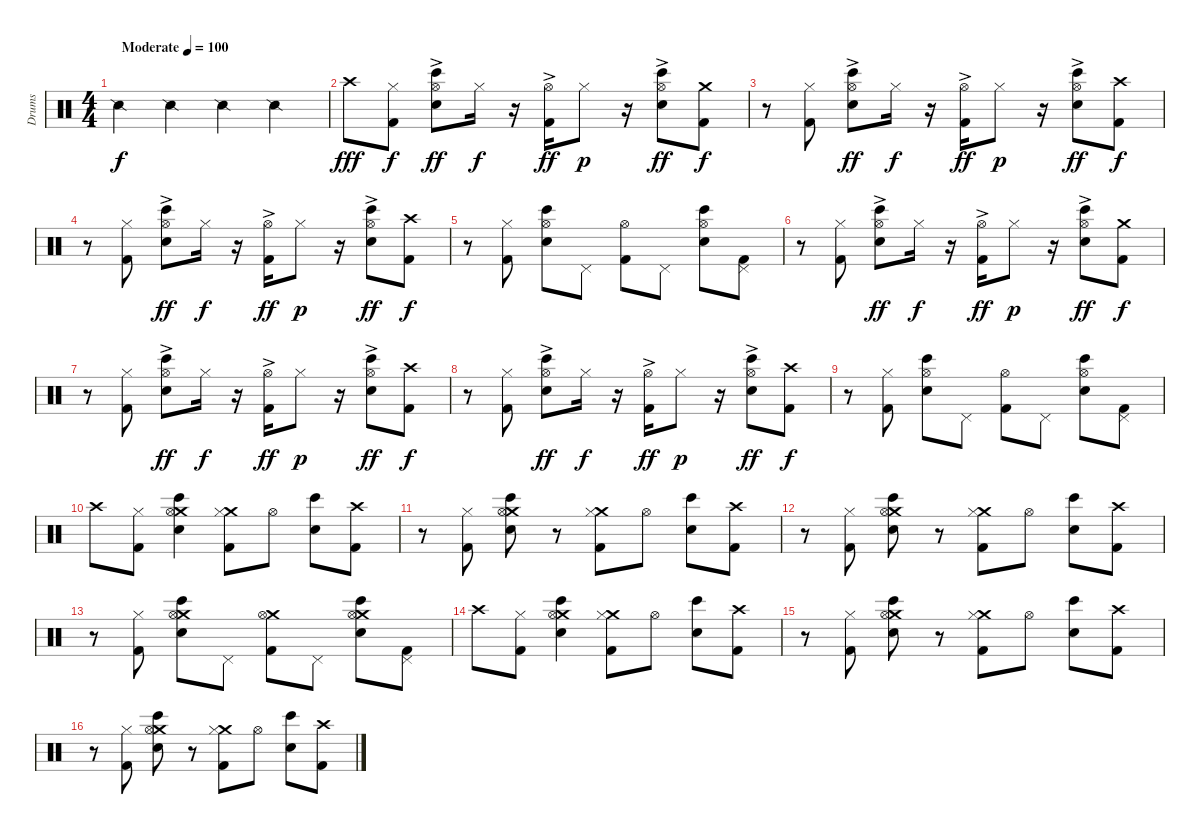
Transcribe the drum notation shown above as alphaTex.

\track ("Drums" "Drums") {instrument percussion}
\staff {score}
\articulation defaults
\ts (4 4)
\tempo (100 "Moderate")
\clef neutral
\ks c "Snare (side stick) 2".4{dy f} "Snare (side stick) 2".4 "Snare (side stick) 2".4 "Snare (side stick) 2".4
|
"Crash high (hit)".8{dy fff} ("Hi-Hat (closed)" "Kick (hit) 2").8{dy f} ("Hi-Hat (open)"{ac} "Bongo High (hit)" "Electric Snare (hit)").8{dy ff} "Hi-Hat (closed)".16{dy f} r.16 ("Hi-Hat (open)"{ac} "Kick (hit) 2").16{dy ff} "Hi-Hat (closed)".8{dy p} r.16 ("Hi-Hat (open)"{ac} "Bongo High (hit)" "Electric Snare (hit)").8{dy ff} ("Crash medium (hit)" "Kick (hit) 2").8{dy f} |
r.8 ("Hi-Hat (closed)" "Kick (hit) 2").8 ("Hi-Hat (open)"{ac} "Bongo High (hit)" "Electric Snare (hit)").8{dy ff} "Hi-Hat (closed)".16{dy f} r.16 ("Hi-Hat (open)"{ac} "Kick (hit) 2").16{dy ff} "Hi-Hat (closed)".8{dy p} r.16 ("Hi-Hat (open)"{ac} "Bongo High (hit)" "Electric Snare (hit)").8{dy ff} ("Crash high (hit)" "Kick (hit) 2").8{dy f} |
r.8 ("Hi-Hat (closed)" "Kick (hit) 2").8 ("Hi-Hat (open)"{ac} "Bongo High (hit)" "Electric Snare (hit)").8{dy ff} "Hi-Hat (closed)".16{dy f} r.16 ("Hi-Hat (open)"{ac} "Kick (hit) 2").16{dy ff} "Hi-Hat (closed)".8{dy p} r.16 ("Hi-Hat (open)"{ac} "Bongo High (hit)" "Electric Snare (hit)").8{dy ff} ("Crash high (hit)" "Kick (hit) 2").8{dy f} |
r.8 ("Hi-Hat (closed)" "Kick (hit) 2").8 ("Hi-Hat (open)" "Bongo High (hit)" "Electric Snare (hit)").8 "Pedal Hi-Hat (hit)".8 ("Hi-Hat (open)" "Kick (hit) 2").8 "Pedal Hi-Hat (hit)".8 ("Hi-Hat (open)" "Bongo High (hit)" "Electric Snare (hit)").8 ("Pedal Hi-Hat (hit)" "Kick (hit) 2").8 |
r.8 ("Hi-Hat (closed)" "Kick (hit) 2").8 ("Hi-Hat (open)"{ac} "Bongo High (hit)" "Electric Snare (hit)").8{dy ff} "Hi-Hat (closed)".16{dy f} r.16 ("Hi-Hat (open)"{ac} "Kick (hit) 2").16{dy ff} "Hi-Hat (closed)".8{dy p} r.16 ("Hi-Hat (open)"{ac} "Bongo High (hit)" "Electric Snare (hit)").8{dy ff} ("Crash medium (hit)" "Kick (hit) 2").8{dy f} |
r.8 ("Hi-Hat (closed)" "Kick (hit) 2").8 ("Hi-Hat (open)"{ac} "Bongo High (hit)" "Electric Snare (hit)").8{dy ff} "Hi-Hat (closed)".16{dy f} r.16 ("Hi-Hat (open)"{ac} "Kick (hit) 2").16{dy ff} "Hi-Hat (closed)".8{dy p} r.16 ("Hi-Hat (open)"{ac} "Bongo High (hit)" "Electric Snare (hit)").8{dy ff} ("Crash high (hit)" "Kick (hit) 2").8{dy f} |
r.8 ("Hi-Hat (closed)" "Kick (hit) 2").8 ("Hi-Hat (open)"{ac} "Bongo High (hit)" "Electric Snare (hit)").8{dy ff} "Hi-Hat (closed)".16{dy f} r.16 ("Hi-Hat (open)"{ac} "Kick (hit) 2").16{dy ff} "Hi-Hat (closed)".8{dy p} r.16 ("Hi-Hat (open)"{ac} "Bongo High (hit)" "Electric Snare (hit)").8{dy ff} ("Crash high (hit)" "Kick (hit) 2").8{dy f} |
r.8 ("Hi-Hat (closed)" "Kick (hit) 2").8 ("Hi-Hat (open)" "Bongo High (hit)" "Electric Snare (hit)").8 "Pedal Hi-Hat (hit)".8 ("Hi-Hat (open)" "Kick (hit) 2").8 "Pedal Hi-Hat (hit)".8 ("Hi-Hat (open)" "Bongo High (hit)" "Electric Snare (hit)").8 ("Pedal Hi-Hat (hit)" "Kick (hit) 2").8 |
"Crash high (hit)".8 ("Hi-Hat (closed)" "Kick (hit) 2").8 ("Crash medium (hit)" "Hi-Hat (open)" "Bongo High (hit)" "Electric Snare (hit)").4 ("Crash medium (hit)" "Hi-Hat (closed)" "Kick (hit) 2").8 "Hi-Hat (open)".8 ("Bongo High (hit)" "Electric Snare (hit)").8 ("Crash high (hit)" "Kick (hit) 2").8 |
r.8 ("Hi-Hat (closed)" "Kick (hit) 2").8 ("Crash medium (hit)" "Hi-Hat (open)" "Bongo High (hit)" "Electric Snare (hit)").8 r.8 ("Crash medium (hit)" "Hi-Hat (closed)" "Kick (hit) 2").8 "Hi-Hat (open)".8 ("Bongo High (hit)" "Electric Snare (hit)").8 ("Crash high (hit)" "Kick (hit) 2").8 |
r.8 ("Hi-Hat (closed)" "Kick (hit) 2").8 ("Crash medium (hit)" "Hi-Hat (open)" "Bongo High (hit)" "Electric Snare (hit)").8 r.8 ("Crash medium (hit)" "Hi-Hat (closed)" "Kick (hit) 2").8 "Hi-Hat (open)".8 ("Bongo High (hit)" "Electric Snare (hit)").8 ("Crash high (hit)" "Kick (hit) 2").8 |
r.8 ("Hi-Hat (closed)" "Kick (hit) 2").8 ("Crash medium (hit)" "Hi-Hat (open)" "Bongo High (hit)" "Electric Snare (hit)").8 "Pedal Hi-Hat (hit)".8 ("Crash medium (hit)" "Hi-Hat (open)" "Kick (hit) 2").8 "Pedal Hi-Hat (hit)".8 ("Crash medium (hit)" "Hi-Hat (open)" "Bongo High (hit)" "Electric Snare (hit)").8 ("Pedal Hi-Hat (hit)" "Kick (hit) 2").8 |
"Crash high (hit)".8 ("Hi-Hat (closed)" "Kick (hit) 2").8 ("Crash medium (hit)" "Hi-Hat (open)" "Bongo High (hit)" "Electric Snare (hit)").4 ("Crash medium (hit)" "Hi-Hat (closed)" "Kick (hit) 2").8 "Hi-Hat (open)".8 ("Bongo High (hit)" "Electric Snare (hit)").8 ("Crash high (hit)" "Kick (hit) 2").8 |
r.8 ("Hi-Hat (closed)" "Kick (hit) 2").8 ("Crash medium (hit)" "Hi-Hat (open)" "Bongo High (hit)" "Electric Snare (hit)").8 r.8 ("Crash medium (hit)" "Hi-Hat (closed)" "Kick (hit) 2").8 "Hi-Hat (open)".8 ("Bongo High (hit)" "Electric Snare (hit)").8 ("Crash high (hit)" "Kick (hit) 2").8 |
r.8 ("Hi-Hat (closed)" "Kick (hit) 2").8 ("Crash medium (hit)" "Hi-Hat (open)" "Bongo High (hit)" "Electric Snare (hit)").8 r.8 ("Crash medium (hit)" "Hi-Hat (closed)" "Kick (hit) 2").8 "Hi-Hat (open)".8 ("Bongo High (hit)" "Electric Snare (hit)").8 ("Crash high (hit)" "Kick (hit) 2").8
